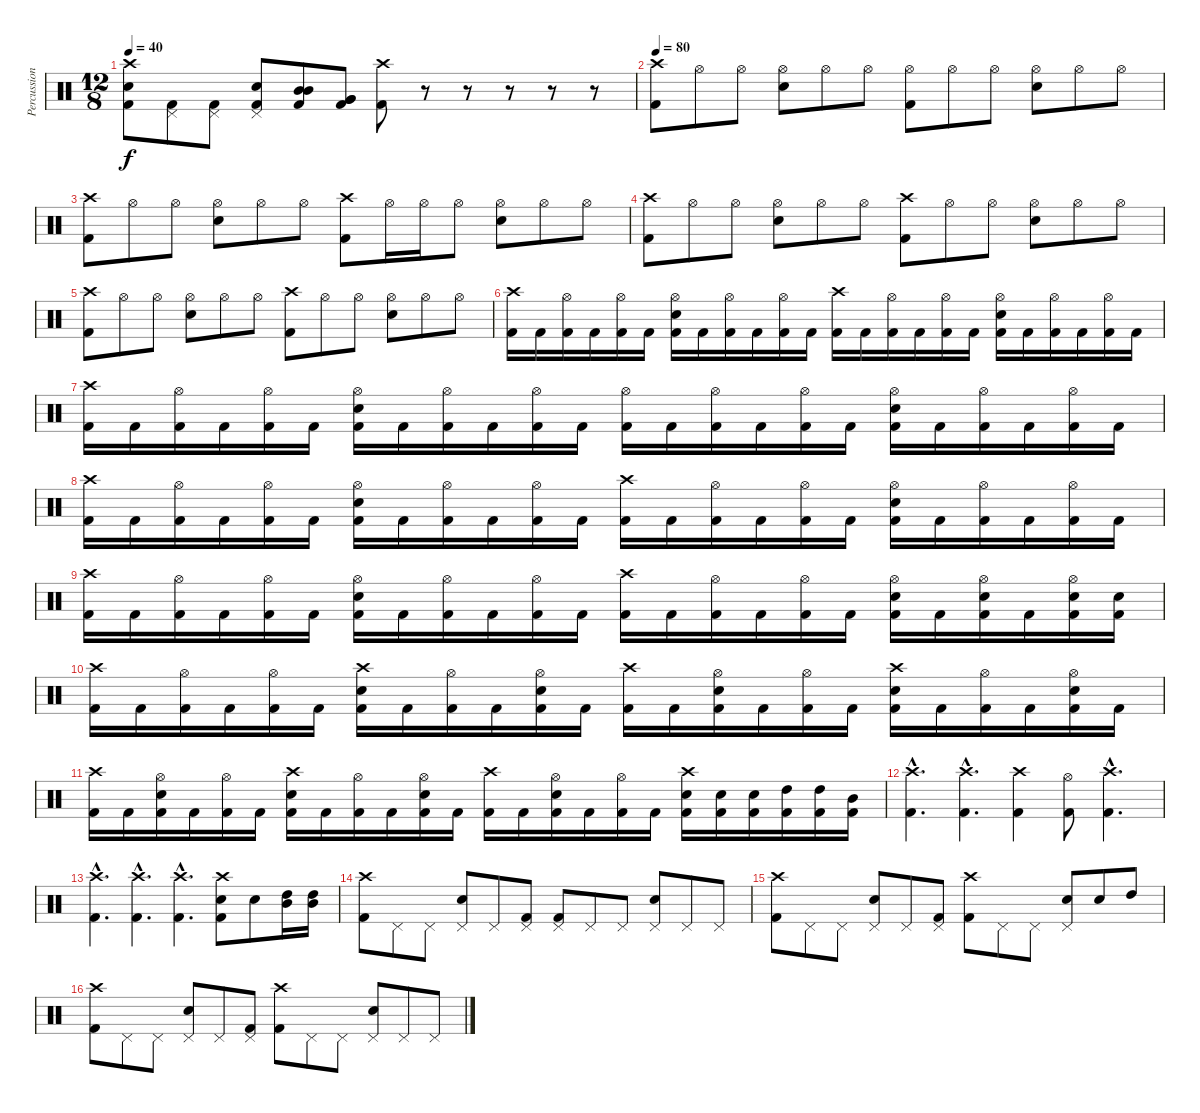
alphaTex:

\track ("Percussions" "Percussion") {instrument percussion}
\staff {score}
\articulation defaults
\ts (12 8)
\tempo 40
\clef neutral
\ks c
("Crash high (hit)" "Electric Snare (hit)" "Kick (hit) 2").8{dy f} ("Pedal Hi-Hat (hit)" "Kick (hit) 2").8 ("Pedal Hi-Hat (hit)" "Kick (hit) 2").8 ("Pedal Hi-Hat (hit)" "Electric Snare (hit)" "Kick (hit) 2").8 ("Mid Tom (hit)" "Mid Tom (hit)" "Kick (hit) 2").8 ("Very Low Tom (hit)" "Very Low Tom (hit)" "Kick (hit) 2").8 ("Crash high (hit)" "Kick (hit) 2").8 r.8 r.8 r.8 r.8 r.8 |
\tempo 80
("Crash high (hit)" "Kick (hit) 2").8 "Hi-Hat (open)".8 "Hi-Hat (open)".8 ("Hi-Hat (open)" "Electric Snare (hit)").8 "Hi-Hat (open)".8 "Hi-Hat (open)".8 ("Hi-Hat (open)" "Kick (hit) 2").8 "Hi-Hat (open)".8 "Hi-Hat (open)".8 ("Hi-Hat (open)" "Electric Snare (hit)").8 "Hi-Hat (open)".8 "Hi-Hat (open)".8 |
("Crash high (hit)" "Kick (hit) 2").8 "Hi-Hat (open)".8 "Hi-Hat (open)".8 ("Hi-Hat (open)" "Electric Snare (hit)").8 "Hi-Hat (open)".8 "Hi-Hat (open)".8 ("Crash high (hit)" "Kick (hit) 2").8 "Hi-Hat (open)".16 "Hi-Hat (open)".16 "Hi-Hat (open)".8 ("Hi-Hat (open)" "Electric Snare (hit)").8 "Hi-Hat (open)".8 "Hi-Hat (open)".8 |
("Crash high (hit)" "Kick (hit) 2").8 "Hi-Hat (open)".8 "Hi-Hat (open)".8 ("Hi-Hat (open)" "Electric Snare (hit)").8 "Hi-Hat (open)".8 "Hi-Hat (open)".8 ("Crash high (hit)" "Kick (hit) 2").8 "Hi-Hat (open)".8 "Hi-Hat (open)".8 ("Hi-Hat (open)" "Electric Snare (hit)").8 "Hi-Hat (open)".8 "Hi-Hat (open)".8 |
("Crash high (hit)" "Kick (hit) 2").8 "Hi-Hat (open)".8 "Hi-Hat (open)".8 ("Hi-Hat (open)" "Electric Snare (hit)").8 "Hi-Hat (open)".8 "Hi-Hat (open)".8 ("Crash high (hit)" "Kick (hit) 2").8 "Hi-Hat (open)".8 "Hi-Hat (open)".8 ("Hi-Hat (open)" "Electric Snare (hit)").8 "Hi-Hat (open)".8 "Hi-Hat (open)".8 |
("Crash high (hit)" "Kick (hit) 2").16 "Kick (hit) 2".16 ("Hi-Hat (open)" "Kick (hit) 2").16 "Kick (hit) 2".16 ("Hi-Hat (open)" "Kick (hit) 2").16 "Kick (hit) 2".16 ("Hi-Hat (open)" "Electric Snare (hit)" "Kick (hit) 2").16 "Kick (hit) 2".16 ("Hi-Hat (open)" "Kick (hit) 2").16 "Kick (hit) 2".16 ("Hi-Hat (open)" "Kick (hit) 2").16 "Kick (hit) 2".16 ("Crash high (hit)" "Kick (hit) 2").16 "Kick (hit) 2".16 ("Hi-Hat (open)" "Kick (hit) 2").16 "Kick (hit) 2".16 ("Hi-Hat (open)" "Kick (hit) 2").16 "Kick (hit) 2".16 ("Hi-Hat (open)" "Electric Snare (hit)" "Kick (hit) 2").16 "Kick (hit) 2".16 ("Hi-Hat (open)" "Kick (hit) 2").16 "Kick (hit) 2".16 ("Hi-Hat (open)" "Kick (hit) 2").16 "Kick (hit) 2".16 |
("Crash high (hit)" "Kick (hit) 2").16 "Kick (hit) 2".16 ("Hi-Hat (open)" "Kick (hit) 2").16 "Kick (hit) 2".16 ("Hi-Hat (open)" "Kick (hit) 2").16 "Kick (hit) 2".16 ("Hi-Hat (open)" "Electric Snare (hit)" "Kick (hit) 2").16 "Kick (hit) 2".16 ("Hi-Hat (open)" "Kick (hit) 2").16 "Kick (hit) 2".16 ("Hi-Hat (open)" "Kick (hit) 2").16 "Kick (hit) 2".16 ("Hi-Hat (open)" "Kick (hit) 2").16 "Kick (hit) 2".16 ("Hi-Hat (open)" "Kick (hit) 2").16 "Kick (hit) 2".16 ("Hi-Hat (open)" "Kick (hit) 2").16 "Kick (hit) 2".16 ("Hi-Hat (open)" "Electric Snare (hit)" "Kick (hit) 2").16 "Kick (hit) 2".16 ("Hi-Hat (open)" "Kick (hit) 2").16 "Kick (hit) 2".16 ("Hi-Hat (open)" "Kick (hit) 2").16 "Kick (hit) 2".16 |
("Crash high (hit)" "Kick (hit) 2").16 "Kick (hit) 2".16 ("Hi-Hat (open)" "Kick (hit) 2").16 "Kick (hit) 2".16 ("Hi-Hat (open)" "Kick (hit) 2").16 "Kick (hit) 2".16 ("Hi-Hat (open)" "Electric Snare (hit)" "Kick (hit) 2").16 "Kick (hit) 2".16 ("Hi-Hat (open)" "Kick (hit) 2").16 "Kick (hit) 2".16 ("Hi-Hat (open)" "Kick (hit) 2").16 "Kick (hit) 2".16 ("Crash high (hit)" "Kick (hit) 2").16 "Kick (hit) 2".16 ("Hi-Hat (open)" "Kick (hit) 2").16 "Kick (hit) 2".16 ("Hi-Hat (open)" "Kick (hit) 2").16 "Kick (hit) 2".16 ("Hi-Hat (open)" "Electric Snare (hit)" "Kick (hit) 2").16 "Kick (hit) 2".16 ("Hi-Hat (open)" "Kick (hit) 2").16 "Kick (hit) 2".16 ("Hi-Hat (open)" "Kick (hit) 2").16 "Kick (hit) 2".16 |
("Crash high (hit)" "Kick (hit) 2").16 "Kick (hit) 2".16 ("Hi-Hat (open)" "Kick (hit) 2").16 "Kick (hit) 2".16 ("Hi-Hat (open)" "Kick (hit) 2").16 "Kick (hit) 2".16 ("Hi-Hat (open)" "Electric Snare (hit)" "Kick (hit) 2").16 "Kick (hit) 2".16 ("Hi-Hat (open)" "Kick (hit) 2").16 "Kick (hit) 2".16 ("Hi-Hat (open)" "Kick (hit) 2").16 "Kick (hit) 2".16 ("Crash high (hit)" "Kick (hit) 2").16 "Kick (hit) 2".16 ("Hi-Hat (open)" "Kick (hit) 2").16 "Kick (hit) 2".16 ("Hi-Hat (open)" "Kick (hit) 2").16 "Kick (hit) 2".16 ("Hi-Hat (open)" "Electric Snare (hit)" "Kick (hit) 2").16 "Kick (hit) 2".16 ("Hi-Hat (open)" "Electric Snare (hit)" "Kick (hit) 2").16 "Kick (hit) 2".16 ("Hi-Hat (open)" "Electric Snare (hit)" "Kick (hit) 2").16 ("Electric Snare (hit)" "Kick (hit) 2").16 |
("Crash high (hit)" "Kick (hit) 2").16 "Kick (hit) 2".16 ("Hi-Hat (open)" "Kick (hit) 2").16 "Kick (hit) 2".16 ("Hi-Hat (open)" "Kick (hit) 2").16 "Kick (hit) 2".16 ("Crash high (hit)" "Electric Snare (hit)" "Kick (hit) 2").16 "Kick (hit) 2".16 ("Hi-Hat (open)" "Kick (hit) 2").16 "Kick (hit) 2".16 ("Hi-Hat (open)" "Electric Snare (hit)" "Kick (hit) 2").16 "Kick (hit) 2".16 ("Crash high (hit)" "Kick (hit) 2").16 "Kick (hit) 2".16 ("Hi-Hat (open)" "Electric Snare (hit)" "Kick (hit) 2").16 "Kick (hit) 2".16 ("Hi-Hat (open)" "Kick (hit) 2").16 "Kick (hit) 2".16 ("Crash high (hit)" "Electric Snare (hit)" "Kick (hit) 2").16 "Kick (hit) 2".16 ("Hi-Hat (open)" "Kick (hit) 2").16 "Kick (hit) 2".16 ("Hi-Hat (open)" "Electric Snare (hit)" "Kick (hit) 2").16 "Kick (hit) 2".16 |
("Crash high (hit)" "Kick (hit) 2").16 "Kick (hit) 2".16 ("Hi-Hat (open)" "Electric Snare (hit)" "Kick (hit) 2").16 "Kick (hit) 2".16 ("Hi-Hat (open)" "Kick (hit) 2").16 "Kick (hit) 2".16 ("Crash high (hit)" "Electric Snare (hit)" "Kick (hit) 2").16 "Kick (hit) 2".16 ("Hi-Hat (open)" "Kick (hit) 2").16 "Kick (hit) 2".16 ("Hi-Hat (open)" "Electric Snare (hit)" "Kick (hit) 2").16 "Kick (hit) 2".16 ("Crash high (hit)" "Kick (hit) 2").16 "Kick (hit) 2".16 ("Hi-Hat (open)" "Electric Snare (hit)" "Kick (hit) 2").16 "Kick (hit) 2".16 ("Hi-Hat (open)" "Kick (hit) 2").16 "Kick (hit) 2".16 ("Crash high (hit)" "Electric Snare (hit)" "Kick (hit) 2").16 ("Electric Snare (hit)" "Kick (hit) 2").16 ("Electric Snare (hit)" "Kick (hit) 2").16 ("High Tom (hit)" "Kick (hit) 2").16 ("High Tom (hit)" "Kick (hit) 2").16 ("Mid Tom (hit)" "Kick (hit) 2").16 |
("Crash high (hit)"{hac} "Kick (hit) 2"{hac}).4{d} ("Crash high (hit)"{hac} "Kick (hit) 2"{hac}).4{d} ("Crash high (hit)" "Kick (hit) 2").4 ("Hi-Hat (open)" "Kick (hit) 2").8 ("Crash high (hit)"{hac} "Kick (hit) 2"{hac}).4{d} |
("Crash high (hit)"{hac} "Kick (hit) 2"{hac}).4{d} ("Crash high (hit)"{hac} "Kick (hit) 2"{hac}).4{d} ("Crash high (hit)"{hac} "Kick (hit) 2"{hac}).4{d} ("Crash high (hit)" "Electric Snare (hit)" "Kick (hit) 2").8 "Electric Snare (hit)".8 ("High Tom (hit)" "Mid Tom (hit)").16 ("High Tom (hit)" "Mid Tom (hit)").16 |
("Crash high (hit)" "Kick (hit) 2").8 "Pedal Hi-Hat (hit)".8 "Pedal Hi-Hat (hit)".8 ("Pedal Hi-Hat (hit)" "Electric Snare (hit)").8 "Pedal Hi-Hat (hit)".8 ("Pedal Hi-Hat (hit)" "Kick (hit) 2").8 ("Pedal Hi-Hat (hit)" "Kick (hit) 2").8 "Pedal Hi-Hat (hit)".8 "Pedal Hi-Hat (hit)".8 ("Pedal Hi-Hat (hit)" "Electric Snare (hit)").8 "Pedal Hi-Hat (hit)".8 "Pedal Hi-Hat (hit)".8 |
("Crash high (hit)" "Kick (hit) 2").8 "Pedal Hi-Hat (hit)".8 "Pedal Hi-Hat (hit)".8 ("Pedal Hi-Hat (hit)" "Electric Snare (hit)").8 "Pedal Hi-Hat (hit)".8 ("Pedal Hi-Hat (hit)" "Kick (hit) 2").8 ("Crash high (hit)" "Kick (hit) 2").8 "Pedal Hi-Hat (hit)".8 "Pedal Hi-Hat (hit)".8 ("Pedal Hi-Hat (hit)" "Electric Snare (hit)").8 "Electric Snare (hit)".8 "High Tom (hit)".8 |
("Crash high (hit)" "Kick (hit) 2").8 "Pedal Hi-Hat (hit)".8 "Pedal Hi-Hat (hit)".8 ("Pedal Hi-Hat (hit)" "Electric Snare (hit)").8 "Pedal Hi-Hat (hit)".8 ("Pedal Hi-Hat (hit)" "Kick (hit) 2").8 ("Crash high (hit)" "Kick (hit) 2").8 "Pedal Hi-Hat (hit)".8 "Pedal Hi-Hat (hit)".8 ("Pedal Hi-Hat (hit)" "Electric Snare (hit)").8 "Pedal Hi-Hat (hit)".8 "Pedal Hi-Hat (hit)".8
